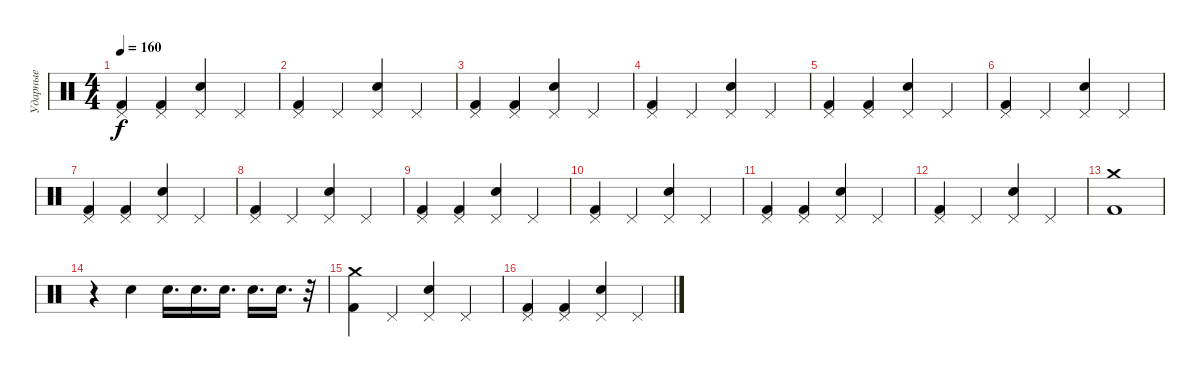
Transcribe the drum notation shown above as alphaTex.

\track ("Ударные" "Ударные") {instrument percussion}
\staff {score}
\articulation defaults
\ts (4 4)
\tempo 160
\clef neutral
\ks c
("Pedal Hi-Hat (hit)" "Kick (hit) 2").4{dy f} ("Pedal Hi-Hat (hit)" "Kick (hit) 2").4 ("Snare (hit) 2" "Pedal Hi-Hat (hit)").4 "Pedal Hi-Hat (hit)".4 |
("Pedal Hi-Hat (hit)" "Kick (hit) 2").4 "Pedal Hi-Hat (hit)".4 ("Snare (hit) 2" "Pedal Hi-Hat (hit)").4 "Pedal Hi-Hat (hit)".4 |
("Pedal Hi-Hat (hit)" "Kick (hit) 2").4 ("Pedal Hi-Hat (hit)" "Kick (hit) 2").4 ("Snare (hit) 2" "Pedal Hi-Hat (hit)").4 "Pedal Hi-Hat (hit)".4 |
("Pedal Hi-Hat (hit)" "Kick (hit) 2").4 "Pedal Hi-Hat (hit)".4 ("Snare (hit) 2" "Pedal Hi-Hat (hit)").4 "Pedal Hi-Hat (hit)".4 |
("Pedal Hi-Hat (hit)" "Kick (hit) 2").4 ("Pedal Hi-Hat (hit)" "Kick (hit) 2").4 ("Snare (hit) 2" "Pedal Hi-Hat (hit)").4 "Pedal Hi-Hat (hit)".4 |
("Pedal Hi-Hat (hit)" "Kick (hit) 2").4 "Pedal Hi-Hat (hit)".4 ("Snare (hit) 2" "Pedal Hi-Hat (hit)").4 "Pedal Hi-Hat (hit)".4 |
("Pedal Hi-Hat (hit)" "Kick (hit) 2").4 ("Pedal Hi-Hat (hit)" "Kick (hit) 2").4 ("Snare (hit) 2" "Pedal Hi-Hat (hit)").4 "Pedal Hi-Hat (hit)".4 |
("Pedal Hi-Hat (hit)" "Kick (hit) 2").4 "Pedal Hi-Hat (hit)".4 ("Snare (hit) 2" "Pedal Hi-Hat (hit)").4 "Pedal Hi-Hat (hit)".4 |
("Pedal Hi-Hat (hit)" "Kick (hit) 2").4 ("Pedal Hi-Hat (hit)" "Kick (hit) 2").4 ("Snare (hit) 2" "Pedal Hi-Hat (hit)").4 "Pedal Hi-Hat (hit)".4 |
("Pedal Hi-Hat (hit)" "Kick (hit) 2").4 "Pedal Hi-Hat (hit)".4 ("Snare (hit) 2" "Pedal Hi-Hat (hit)").4 "Pedal Hi-Hat (hit)".4 |
("Pedal Hi-Hat (hit)" "Kick (hit) 2").4 ("Pedal Hi-Hat (hit)" "Kick (hit) 2").4 ("Snare (hit) 2" "Pedal Hi-Hat (hit)").4 "Pedal Hi-Hat (hit)".4 |
("Pedal Hi-Hat (hit)" "Kick (hit) 2").4 "Pedal Hi-Hat (hit)".4 ("Snare (hit) 2" "Pedal Hi-Hat (hit)").4 "Pedal Hi-Hat (hit)".4 |
("Crash medium (hit)" "Kick (hit) 2").1 |
r.4 "Snare (hit) 2".4 "Snare (hit) 2".16{d} "Snare (hit) 2".16{d} "Snare (hit) 2".16{d} "Snare (hit) 2".16{d} "Snare (hit) 2".16{d} r.32 |
("Crash medium (hit)" "Kick (hit) 2").4 "Pedal Hi-Hat (hit)".4 ("Snare (hit) 2" "Pedal Hi-Hat (hit)").4 "Pedal Hi-Hat (hit)".4 |
("Pedal Hi-Hat (hit)" "Kick (hit) 2").4 ("Pedal Hi-Hat (hit)" "Kick (hit) 2").4 ("Snare (hit) 2" "Pedal Hi-Hat (hit)").4 "Pedal Hi-Hat (hit)".4
